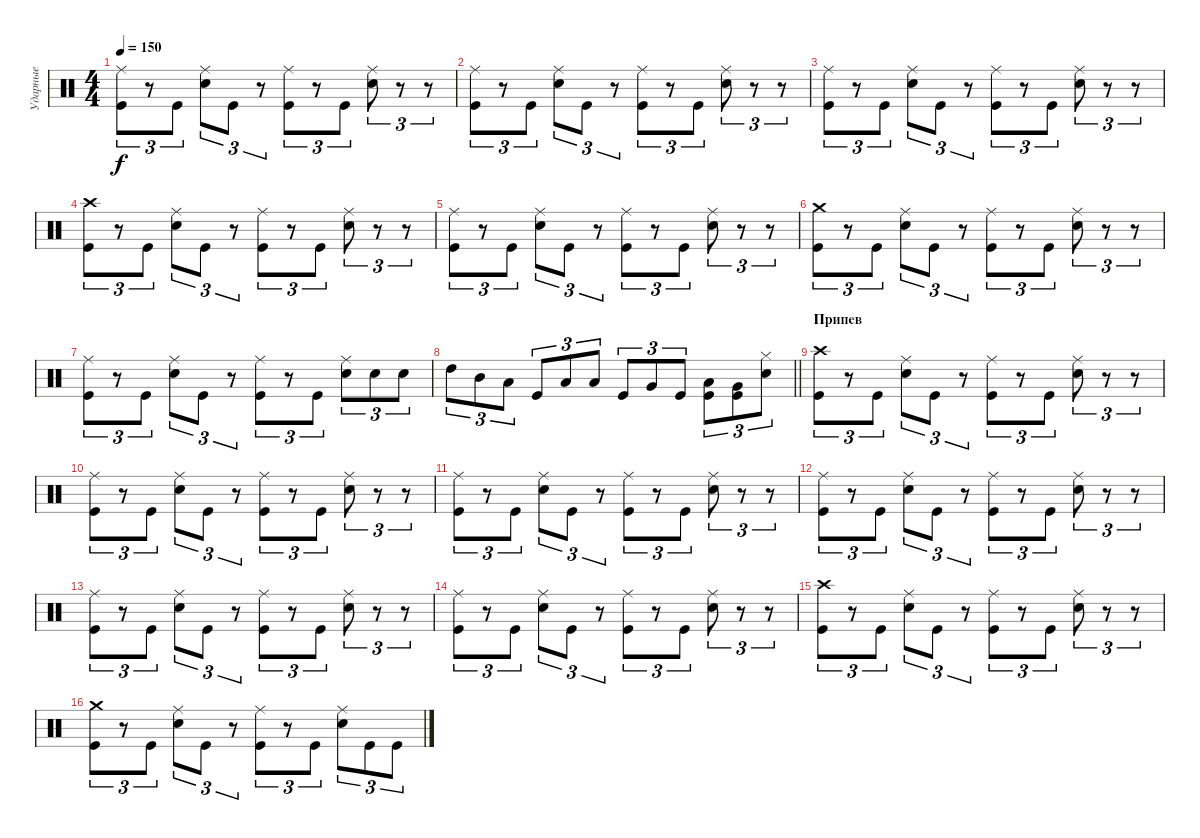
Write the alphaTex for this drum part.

\track ("Ударные" "Ударные") {instrument percussion}
\staff {score}
\articulation defaults
\ts (4 4)
\tempo 150
\clef neutral
\ks c
("Ride (middle)" "Kick (hit)").8{tu (3 2) dy f} r.8{tu (3 2)} "Kick (hit)".8{tu (3 2)} ("Ride (middle)" "Snare (hit) 2").8{tu (3 2)} "Kick (hit)".8{tu (3 2)} r.8{tu (3 2)} ("Ride (middle)" "Kick (hit)").8{tu (3 2)} r.8{tu (3 2)} "Kick (hit)".8{tu (3 2)} ("Ride (middle)" "Snare (hit) 2").8{tu (3 2)} r.8{tu (3 2)} r.8{tu (3 2)} |
("Ride (middle)" "Kick (hit)").8{tu (3 2)} r.8{tu (3 2)} "Kick (hit)".8{tu (3 2)} ("Ride (middle)" "Snare (hit) 2").8{tu (3 2)} "Kick (hit)".8{tu (3 2)} r.8{tu (3 2)} ("Ride (middle)" "Kick (hit)").8{tu (3 2)} r.8{tu (3 2)} "Kick (hit)".8{tu (3 2)} ("Ride (middle)" "Snare (hit) 2").8{tu (3 2)} r.8{tu (3 2)} r.8{tu (3 2)} |
("Ride (middle)" "Kick (hit)").8{tu (3 2)} r.8{tu (3 2)} "Kick (hit)".8{tu (3 2)} ("Ride (middle)" "Snare (hit) 2").8{tu (3 2)} "Kick (hit)".8{tu (3 2)} r.8{tu (3 2)} ("Ride (middle)" "Kick (hit)").8{tu (3 2)} r.8{tu (3 2)} "Kick (hit)".8{tu (3 2)} ("Ride (middle)" "Snare (hit) 2").8{tu (3 2)} r.8{tu (3 2)} r.8{tu (3 2)} |
("Crash high (hit)" "Kick (hit)").8{tu (3 2)} r.8{tu (3 2)} "Kick (hit)".8{tu (3 2)} ("Ride (middle)" "Snare (hit) 2").8{tu (3 2)} "Kick (hit)".8{tu (3 2)} r.8{tu (3 2)} ("Ride (middle)" "Kick (hit)").8{tu (3 2)} r.8{tu (3 2)} "Kick (hit)".8{tu (3 2)} ("Ride (middle)" "Snare (hit) 2").8{tu (3 2)} r.8{tu (3 2)} r.8{tu (3 2)} |
("Ride (middle)" "Kick (hit)").8{tu (3 2)} r.8{tu (3 2)} "Kick (hit)".8{tu (3 2)} ("Ride (middle)" "Snare (hit) 2").8{tu (3 2)} "Kick (hit)".8{tu (3 2)} r.8{tu (3 2)} ("Ride (middle)" "Kick (hit)").8{tu (3 2)} r.8{tu (3 2)} "Kick (hit)".8{tu (3 2)} ("Ride (middle)" "Snare (hit) 2").8{tu (3 2)} r.8{tu (3 2)} r.8{tu (3 2)} |
("Crash medium (hit)" "Kick (hit)").8{tu (3 2)} r.8{tu (3 2)} "Kick (hit)".8{tu (3 2)} ("Ride (middle)" "Snare (hit) 2").8{tu (3 2)} "Kick (hit)".8{tu (3 2)} r.8{tu (3 2)} ("Ride (middle)" "Kick (hit)").8{tu (3 2)} r.8{tu (3 2)} "Kick (hit)".8{tu (3 2)} ("Ride (middle)" "Snare (hit) 2").8{tu (3 2)} r.8{tu (3 2)} r.8{tu (3 2)} |
("Ride (middle)" "Kick (hit)").8{tu (3 2)} r.8{tu (3 2)} "Kick (hit)".8{tu (3 2)} ("Ride (middle)" "Snare (hit) 2").8{tu (3 2)} "Kick (hit)".8{tu (3 2)} r.8{tu (3 2)} ("Ride (middle)" "Kick (hit)").8{tu (3 2)} r.8{tu (3 2)} "Kick (hit)".8{tu (3 2)} ("Ride (middle)" "Snare (hit) 2").8{tu (3 2)} "Snare (hit) 2".8{tu (3 2)} "Snare (hit) 2".8{tu (3 2)} |
\barLineRight lightlight "High Tom (hit)".8{tu (3 2)} "Mid Tom (hit)".8{tu (3 2)} "Low Tom (hit)".8{tu (3 2)} "Kick (hit)".8{tu (3 2)} "Low Tom (hit)".8{tu (3 2)} "Low Tom (hit)".8{tu (3 2)} "Kick (hit)".8{tu (3 2)} "Very Low Tom (hit)".8{tu (3 2)} "Kick (hit)".8{tu (3 2)}
("Low Tom (hit)" "Kick (hit)").8{tu (3 2)} ("Very Low Tom (hit)" "Kick (hit)").8{tu (3 2)} ("Hi-Hat (closed)" "Snare (hit) 2").8{tu (3 2)} |
\section ("" "Припев")
("Crash high (hit)" "Kick (hit)").8{tu (3 2)} r.8{tu (3 2)} "Kick (hit)".8{tu (3 2)} ("Ride (middle)" "Snare (hit) 2").8{tu (3 2)} "Kick (hit)".8{tu (3 2)} r.8{tu (3 2)} ("Ride (middle)" "Kick (hit)").8{tu (3 2)} r.8{tu (3 2)} "Kick (hit)".8{tu (3 2)} ("Ride (middle)" "Snare (hit) 2").8{tu (3 2)} r.8{tu (3 2)} r.8{tu (3 2)} |
("Ride (middle)" "Kick (hit)").8{tu (3 2)} r.8{tu (3 2)} "Kick (hit)".8{tu (3 2)} ("Ride (middle)" "Snare (hit) 2").8{tu (3 2)} "Kick (hit)".8{tu (3 2)} r.8{tu (3 2)} ("Ride (middle)" "Kick (hit)").8{tu (3 2)} r.8{tu (3 2)} "Kick (hit)".8{tu (3 2)} ("Ride (middle)" "Snare (hit) 2").8{tu (3 2)} r.8{tu (3 2)} r.8{tu (3 2)} |
("Ride (middle)" "Kick (hit)").8{tu (3 2)} r.8{tu (3 2)} "Kick (hit)".8{tu (3 2)} ("Ride (middle)" "Snare (hit) 2").8{tu (3 2)} "Kick (hit)".8{tu (3 2)} r.8{tu (3 2)} ("Ride (middle)" "Kick (hit)").8{tu (3 2)} r.8{tu (3 2)} "Kick (hit)".8{tu (3 2)} ("Ride (middle)" "Snare (hit) 2").8{tu (3 2)} r.8{tu (3 2)} r.8{tu (3 2)} |
("Ride (middle)" "Kick (hit)").8{tu (3 2)} r.8{tu (3 2)} "Kick (hit)".8{tu (3 2)} ("Ride (middle)" "Snare (hit) 2").8{tu (3 2)} "Kick (hit)".8{tu (3 2)} r.8{tu (3 2)} ("Ride (middle)" "Kick (hit)").8{tu (3 2)} r.8{tu (3 2)} "Kick (hit)".8{tu (3 2)} ("Ride (middle)" "Snare (hit) 2").8{tu (3 2)} r.8{tu (3 2)} r.8{tu (3 2)} |
("Ride (middle)" "Kick (hit)").8{tu (3 2)} r.8{tu (3 2)} "Kick (hit)".8{tu (3 2)} ("Ride (middle)" "Snare (hit) 2").8{tu (3 2)} "Kick (hit)".8{tu (3 2)} r.8{tu (3 2)} ("Ride (middle)" "Kick (hit)").8{tu (3 2)} r.8{tu (3 2)} "Kick (hit)".8{tu (3 2)} ("Ride (middle)" "Snare (hit) 2").8{tu (3 2)} r.8{tu (3 2)} r.8{tu (3 2)} |
("Ride (middle)" "Kick (hit)").8{tu (3 2)} r.8{tu (3 2)} "Kick (hit)".8{tu (3 2)} ("Ride (middle)" "Snare (hit) 2").8{tu (3 2)} "Kick (hit)".8{tu (3 2)} r.8{tu (3 2)} ("Ride (middle)" "Kick (hit)").8{tu (3 2)} r.8{tu (3 2)} "Kick (hit)".8{tu (3 2)} ("Ride (middle)" "Snare (hit) 2").8{tu (3 2)} r.8{tu (3 2)} r.8{tu (3 2)} |
("Crash high (hit)" "Kick (hit)").8{tu (3 2)} r.8{tu (3 2)} "Kick (hit)".8{tu (3 2)} ("Ride (middle)" "Snare (hit) 2").8{tu (3 2)} "Kick (hit)".8{tu (3 2)} r.8{tu (3 2)} ("Ride (middle)" "Kick (hit)").8{tu (3 2)} r.8{tu (3 2)} "Kick (hit)".8{tu (3 2)} ("Ride (middle)" "Snare (hit) 2").8{tu (3 2)} r.8{tu (3 2)} r.8{tu (3 2)} |
("Crash medium (hit)" "Kick (hit)").8{tu (3 2)} r.8{tu (3 2)} "Kick (hit)".8{tu (3 2)} ("Ride (middle)" "Snare (hit) 2").8{tu (3 2)} "Kick (hit)".8{tu (3 2)} r.8{tu (3 2)} ("Ride (middle)" "Kick (hit)").8{tu (3 2)} r.8{tu (3 2)} "Kick (hit)".8{tu (3 2)} ("Ride (middle)" "Snare (hit) 2").8{tu (3 2)} "Kick (hit)".8{tu (3 2)} "Kick (hit)".8{tu (3 2)}
